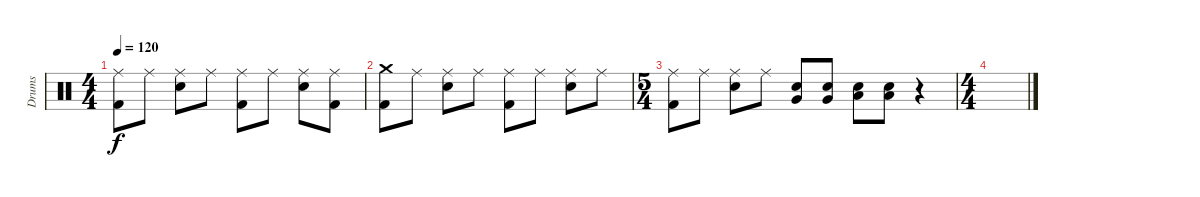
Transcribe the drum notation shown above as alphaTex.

\track ("Drums" "Drums") {instrument percussion}
\staff {score}
\articulation defaults
\ts (4 4)
\tempo 120
\clef neutral
\ks c
("Kick (hit) 2" "Ride (middle)").8{dy f} "Ride (middle)".8 ("Snare (hit) 2" "Ride (middle)").8 "Ride (middle)".8 ("Kick (hit) 2" "Ride (middle)").8 "Ride (middle)".8 ("Snare (hit) 2" "Ride (middle)").8 ("Kick (hit) 2" "Ride (middle)").8 |
("Kick (hit) 2" "Crash medium (hit)").8 "Ride (middle)".8 ("Snare (hit) 2" "Ride (middle)").8 "Ride (middle)".8 ("Kick (hit) 2" "Ride (middle)").8 "Ride (middle)".8 ("Snare (hit) 2" "Ride (middle)").8 "Ride (middle)".8 |
\ts (5 4)
("Kick (hit) 2" "Ride (middle)").8 "Ride (middle)".8 ("Snare (hit) 2" "Ride (middle)").8 "Ride (middle)".8 ("Snare (hit) 2" "Very Low Tom (hit)").8 ("Snare (hit) 2" "Very Low Tom (hit)").8 ("Snare (hit) 2" "Low Floor Tom (hit)").8 ("Snare (hit) 2" "Low Floor Tom (hit)").8 r.4 |
\ts (4 4)
